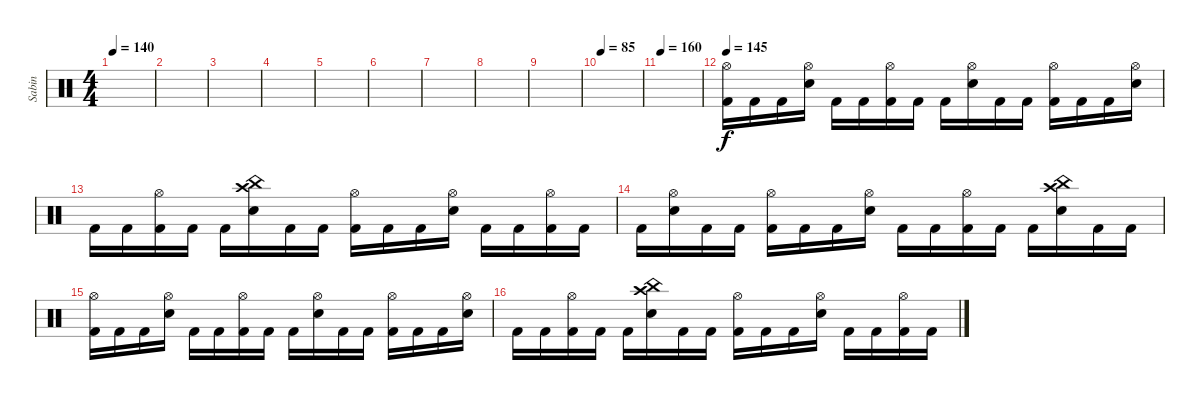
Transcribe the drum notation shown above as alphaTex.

\track ("Sabin" "Sabin") {instrument percussion}
\staff {score}
\articulation defaults
\ts (4 4)
\tempo 140
\tempo 100
\tempo 140
\clef neutral
\ks c
|
|
|
|
|
|
|
|
|
\tempo 85
|
\tempo 160
|
\tempo 145
("Hi-Hat (open)" "Kick (hit) 2").16 "Kick (hit) 2".16 "Kick (hit) 2".16 ("Hi-Hat (open)" "Snare (hit) 2").16 "Kick (hit) 2".16 "Kick (hit) 2".16 ("Hi-Hat (open)" "Kick (hit) 2").16 "Kick (hit) 2".16 "Kick (hit) 2".16 ("Hi-Hat (open)" "Snare (hit) 2").16 "Kick (hit) 2".16 "Kick (hit) 2".16 ("Hi-Hat (open)" "Kick (hit) 2").16 "Kick (hit) 2".16 "Kick (hit) 2".16 ("Hi-Hat (open)" "Snare (hit) 2").16 |
"Kick (hit) 2".16 "Kick (hit) 2".16 ("Hi-Hat (open)" "Kick (hit) 2").16 "Kick (hit) 2".16 "Kick (hit) 2".16 ("China (hit)" "Crash high (hit)" "Snare (hit) 2").16 "Kick (hit) 2".16 "Kick (hit) 2".16 ("Hi-Hat (open)" "Kick (hit) 2").16 "Kick (hit) 2".16 "Kick (hit) 2".16 ("Hi-Hat (open)" "Snare (hit) 2").16 "Kick (hit) 2".16 "Kick (hit) 2".16 ("Hi-Hat (open)" "Kick (hit) 2").16 "Kick (hit) 2".16 |
"Kick (hit) 2".16 ("Hi-Hat (open)" "Snare (hit) 2").16 "Kick (hit) 2".16 "Kick (hit) 2".16 ("Hi-Hat (open)" "Kick (hit) 2").16 "Kick (hit) 2".16 "Kick (hit) 2".16 ("Hi-Hat (open)" "Snare (hit) 2").16 "Kick (hit) 2".16 "Kick (hit) 2".16 ("Hi-Hat (open)" "Kick (hit) 2").16 "Kick (hit) 2".16 "Kick (hit) 2".16 ("China (hit)" "Crash high (hit)" "Snare (hit) 2").16 "Kick (hit) 2".16 "Kick (hit) 2".16 |
("Hi-Hat (open)" "Kick (hit) 2").16 "Kick (hit) 2".16 "Kick (hit) 2".16 ("Hi-Hat (open)" "Snare (hit) 2").16 "Kick (hit) 2".16 "Kick (hit) 2".16 ("Hi-Hat (open)" "Kick (hit) 2").16 "Kick (hit) 2".16 "Kick (hit) 2".16 ("Hi-Hat (open)" "Snare (hit) 2").16 "Kick (hit) 2".16 "Kick (hit) 2".16 ("Hi-Hat (open)" "Kick (hit) 2").16 "Kick (hit) 2".16 "Kick (hit) 2".16 ("Hi-Hat (open)" "Snare (hit) 2").16 |
"Kick (hit) 2".16 "Kick (hit) 2".16 ("Hi-Hat (open)" "Kick (hit) 2").16 "Kick (hit) 2".16 "Kick (hit) 2".16 ("Crash high (hit)" "China (hit)" "Snare (hit) 2").16 "Kick (hit) 2".16 "Kick (hit) 2".16 ("Hi-Hat (open)" "Kick (hit) 2").16 "Kick (hit) 2".16 "Kick (hit) 2".16 ("Hi-Hat (open)" "Snare (hit) 2").16 "Kick (hit) 2".16 "Kick (hit) 2".16 ("Hi-Hat (open)" "Kick (hit) 2").16 "Kick (hit) 2".16
